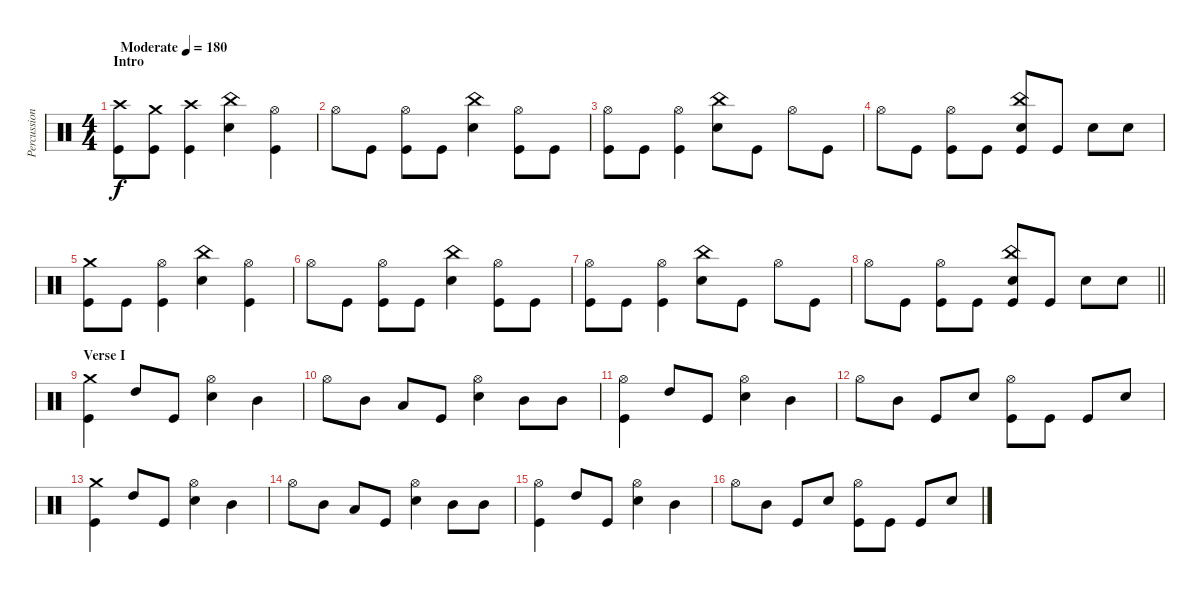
\track ("Percussion" "Percussion") {instrument percussion}
\staff {score}
\articulation defaults
\ts (4 4)
\section ("" "Intro")
\tempo (180 "Moderate")
\clef neutral
\ks c
("Crash high (hit)" "Kick (hit)").8{dy f} ("Crash medium (hit)" "Kick (hit)").8 ("Crash high (hit)" "Kick (hit)").4 ("China (hit)" "Electric Snare (hit)").4 ("Hi-Hat (open)" "Kick (hit)").4 |
"Hi-Hat (open)".8 "Kick (hit)".8 ("Hi-Hat (open)" "Kick (hit)").8 "Kick (hit)".8 ("China (hit)" "Electric Snare (hit)").4 ("Hi-Hat (open)" "Kick (hit)").8 "Kick (hit)".8 |
("Hi-Hat (open)" "Kick (hit)").8 "Kick (hit)".8 ("Hi-Hat (open)" "Kick (hit)").4 ("China (hit)" "Electric Snare (hit)").8 "Kick (hit)".8 "Hi-Hat (open)".8 "Kick (hit)".8 |
"Hi-Hat (open)".8 "Kick (hit)".8 ("Hi-Hat (open)" "Kick (hit)").8 "Kick (hit)".8 ("China (hit)" "Electric Snare (hit)" "Kick (hit)").8 "Kick (hit)".8 "Electric Snare (hit)".8 "Electric Snare (hit)".8 |
("Crash medium (hit)" "Kick (hit)").8 "Kick (hit)".8 ("Hi-Hat (open)" "Kick (hit)").4 ("China (hit)" "Electric Snare (hit)").4 ("Hi-Hat (open)" "Kick (hit)").4 |
"Hi-Hat (open)".8 "Kick (hit)".8 ("Hi-Hat (open)" "Kick (hit)").8 "Kick (hit)".8 ("China (hit)" "Electric Snare (hit)").4 ("Hi-Hat (open)" "Kick (hit)").8 "Kick (hit)".8 |
("Hi-Hat (open)" "Kick (hit)").8 "Kick (hit)".8 ("Hi-Hat (open)" "Kick (hit)").4 ("China (hit)" "Electric Snare (hit)").8 "Kick (hit)".8 "Hi-Hat (open)".8 "Kick (hit)".8 |
\barLineRight lightlight "Hi-Hat (open)".8 "Kick (hit)".8
("Hi-Hat (open)" "Kick (hit)").8 "Kick (hit)".8 ("China (hit)" "Electric Snare (hit)" "Kick (hit)").8 "Kick (hit)".8 "Electric Snare (hit)".8 "Electric Snare (hit)".8 |
\section ("" "Verse I")
("Crash medium (hit)" "Kick (hit)").4 "High Tom (hit)".8 "Kick (hit)".8 ("Hi-Hat (open)" "Electric Snare (hit)").4 "Mid Tom (hit)".4 |
"Hi-Hat (open)".8 "Mid Tom (hit)".8 "Low Tom (hit)".8 "Kick (hit)".8 ("Hi-Hat (open)" "Electric Snare (hit)").4 "Mid Tom (hit)".8 "Mid Tom (hit)".8 |
("Hi-Hat (open)" "Kick (hit)").4 "High Tom (hit)".8 "Kick (hit)".8 ("Hi-Hat (open)" "Electric Snare (hit)").4 "Mid Tom (hit)".4 |
"Hi-Hat (open)".8 "Mid Tom (hit)".8 "Kick (hit)".8 "Electric Snare (hit)".8 ("Hi-Hat (open)" "Kick (hit)").8 "Kick (hit)".8 "Kick (hit)".8 "Electric Snare (hit)".8 |
("Crash medium (hit)" "Kick (hit)").4 "High Tom (hit)".8 "Kick (hit)".8 ("Hi-Hat (open)" "Electric Snare (hit)").4 "Mid Tom (hit)".4 |
"Hi-Hat (open)".8 "Mid Tom (hit)".8 "Low Tom (hit)".8 "Kick (hit)".8 ("Hi-Hat (open)" "Electric Snare (hit)").4 "Mid Tom (hit)".8 "Mid Tom (hit)".8 |
("Hi-Hat (open)" "Kick (hit)").4 "High Tom (hit)".8 "Kick (hit)".8 ("Hi-Hat (open)" "Electric Snare (hit)").4 "Mid Tom (hit)".4 |
"Hi-Hat (open)".8 "Mid Tom (hit)".8 "Kick (hit)".8 "Electric Snare (hit)".8 ("Hi-Hat (open)" "Kick (hit)").8 "Kick (hit)".8 "Kick (hit)".8 "Electric Snare (hit)".8
